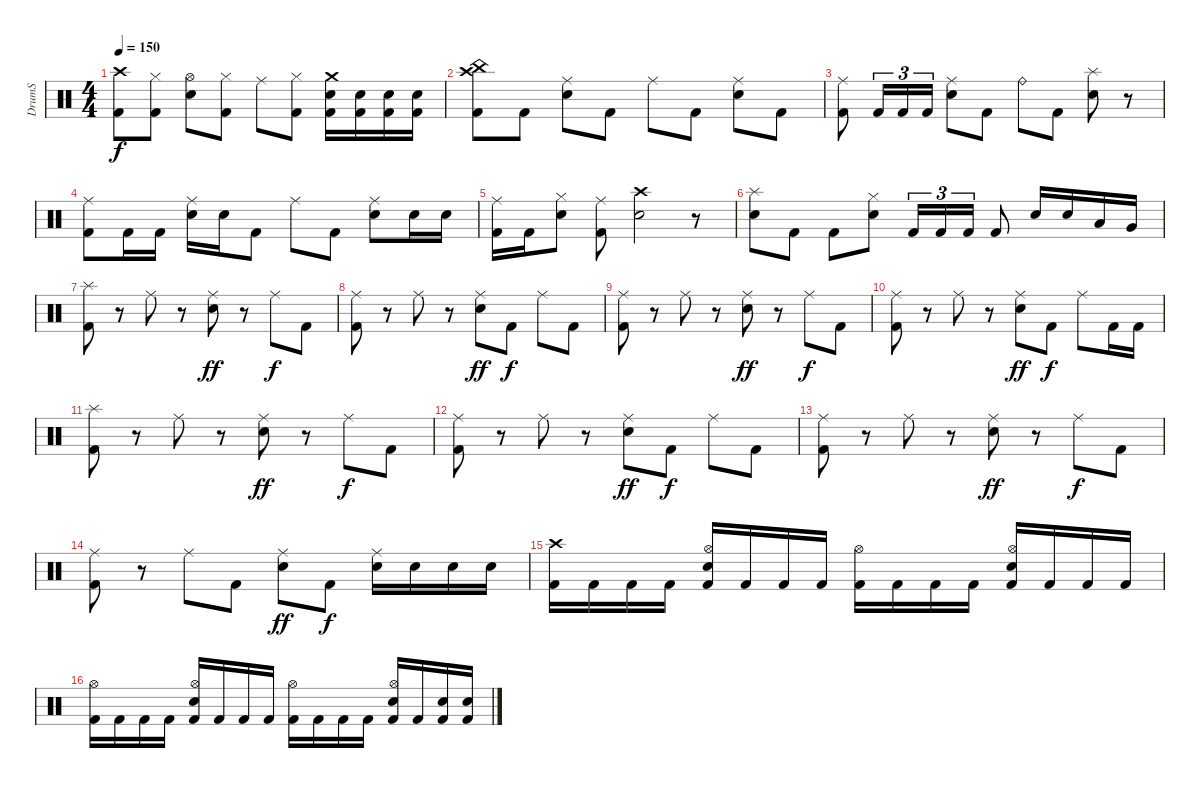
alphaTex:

\track ("DrumS" "DrumS") {instrument percussion}
\staff {score}
\articulation defaults
\ts (4 4)
\tempo 150
\clef neutral
\ks c
("Crash high (hit)" "Kick (hit) 2").8{dy f} ("Hi-Hat (closed)" "Kick (hit) 2").8 ("Hi-Hat (open)" "Snare (hit) 2").8 ("Hi-Hat (closed)" "Kick (hit) 2").8 "Ride (middle)".8 ("Hi-Hat (closed)" "Kick (hit) 2").8 ("Crash medium (hit)" "Snare (hit) 2" "Kick (hit) 2").16 ("Snare (hit) 2" "Kick (hit) 2").16 ("Snare (hit) 2" "Kick (hit) 2").16 ("Snare (hit) 2" "Kick (hit) 2").16 |
("Crash high (hit)" "China (hit)" "Kick (hit) 2").8 "Kick (hit) 2".8 ("Ride (middle)" "Snare (hit) 2").8 "Kick (hit) 2".8 "Ride (middle)".8 "Kick (hit) 2".8 ("Ride (middle)" "Snare (hit) 2").8 "Kick (hit) 2".8 |
("Ride (middle)" "Kick (hit) 2").8 "Kick (hit) 2".16{tu (3 2)} "Kick (hit) 2".16{tu (3 2)} "Kick (hit) 2".16{tu (3 2)} ("Ride (middle)" "Snare (hit) 2").8 "Kick (hit) 2".8 "Ride (bell)".8 "Kick (hit) 2".8 ("Splash (hit)" "Snare (hit) 2").8 r.8 |
("Ride (middle)" "Kick (hit) 2").8 "Kick (hit) 2".16 "Kick (hit) 2".16 ("Ride (middle)" "Snare (hit) 2").16 "Snare (hit) 2".16 "Kick (hit) 2".8 "Ride (middle)".8 "Kick (hit) 2".8 ("Ride (middle)" "Snare (hit) 2").8 "Snare (hit) 2".16 "Snare (hit) 2".16 |
("Ride (middle)" "Kick (hit) 2").16 "Kick (hit) 2".16 ("Hi-Hat (closed)" "Snare (hit) 2").8 ("Ride (middle)" "Kick (hit) 2").8 ("Crash high (hit)" "Snare (hit) 2").2 r.8 |
("Splash (hit)" "Snare (hit) 2").8 "Kick (hit) 2".8 "Kick (hit) 2".8 ("Hi-Hat (closed)" "Snare (hit) 2").8 "Kick (hit) 2".16{tu (3 2)} "Kick (hit) 2".16{tu (3 2)} "Kick (hit) 2".16{tu (3 2)} "Kick (hit) 2".8 "Snare (hit) 2".16 "Snare (hit) 2".16 "Low Tom (hit)".16 "Very Low Tom (hit)".16 |
("Splash (hit)" "Kick (hit) 2").8 r.8 "Ride (middle)".8 r.8 ("Ride (middle)" "Metronome (bell)").8{dy ff} r.8 "Ride (middle)".8{dy f} "Kick (hit) 2".8 |
("Ride (middle)" "Kick (hit) 2").8 r.8 "Ride (middle)".8 r.8 ("Ride (middle)" "Metronome (bell)").8{dy ff} "Kick (hit) 2".8{dy f} "Ride (middle)".8 "Kick (hit) 2".8 |
("Ride (middle)" "Kick (hit) 2").8 r.8 "Ride (middle)".8 r.8 ("Ride (middle)" "Metronome (bell)").8{dy ff} r.8 "Ride (middle)".8{dy f} "Kick (hit) 2".8 |
("Ride (middle)" "Kick (hit) 2").8 r.8 "Ride (middle)".8 r.8 ("Ride (middle)" "Metronome (bell)").8{dy ff} "Kick (hit) 2".8{dy f} "Ride (middle)".8 "Kick (hit) 2".16 "Kick (hit) 2".16 |
("Splash (hit)" "Kick (hit) 2").8 r.8 "Ride (middle)".8 r.8 ("Ride (middle)" "Metronome (bell)").8{dy ff} r.8 "Ride (middle)".8{dy f} "Kick (hit) 2".8 |
("Ride (middle)" "Kick (hit) 2").8 r.8 "Ride (middle)".8 r.8 ("Ride (middle)" "Metronome (bell)").8{dy ff} "Kick (hit) 2".8{dy f} "Ride (middle)".8 "Kick (hit) 2".8 |
("Ride (middle)" "Kick (hit) 2").8 r.8 "Ride (middle)".8 r.8 ("Ride (middle)" "Metronome (bell)").8{dy ff} r.8 "Ride (middle)".8{dy f} "Kick (hit) 2".8 |
("Ride (middle)" "Kick (hit) 2").8 r.8 "Ride (middle)".8 "Kick (hit) 2".8 ("Ride (middle)" "Snare (hit) 2").8{dy ff} "Kick (hit) 2".8{dy f} ("Ride (middle)" "Snare (hit) 2").16 "Snare (hit) 2".16 "Snare (hit) 2".16 "Snare (hit) 2".16 |
("Crash high (hit)" "Kick (hit) 2").16 "Kick (hit) 2".16 "Kick (hit) 2".16 "Kick (hit) 2".16 ("Hi-Hat (open)" "Snare (hit) 2" "Kick (hit) 2").16 "Kick (hit) 2".16 "Kick (hit) 2".16 "Kick (hit) 2".16 ("Hi-Hat (open)" "Kick (hit) 2").16 "Kick (hit) 2".16 "Kick (hit) 2".16 "Kick (hit) 2".16 ("Hi-Hat (open)" "Snare (hit) 2" "Kick (hit) 2").16 "Kick (hit) 2".16 "Kick (hit) 2".16 "Kick (hit) 2".16 |
("Hi-Hat (open)" "Kick (hit) 2").16 "Kick (hit) 2".16 "Kick (hit) 2".16 "Kick (hit) 2".16 ("Hi-Hat (open)" "Snare (hit) 2" "Kick (hit) 2").16 "Kick (hit) 2".16 "Kick (hit) 2".16 "Kick (hit) 2".16 ("Hi-Hat (open)" "Kick (hit) 2").16 "Kick (hit) 2".16 "Kick (hit) 2".16 "Kick (hit) 2".16 ("Hi-Hat (open)" "Snare (hit) 2" "Kick (hit) 2").16 "Kick (hit) 2".16 ("Snare (hit) 2" "Kick (hit) 2").16 ("Snare (hit) 2" "Kick (hit) 2").16
